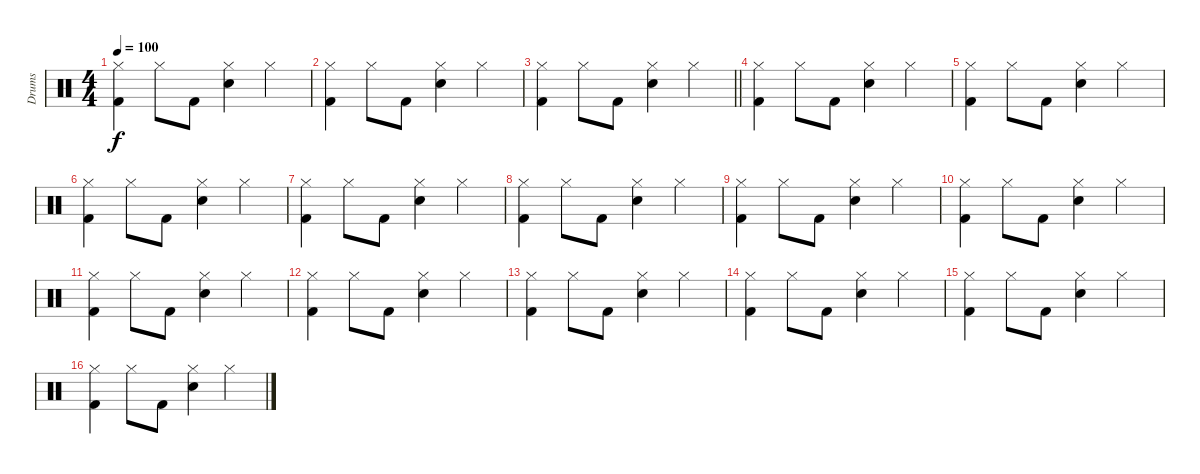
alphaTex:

\track ("Drums" "Drums") {instrument percussion}
\staff {score}
\articulation defaults
\ts (4 4)
\tempo 100
\clef neutral
\ks c
("Hi-Hat (closed)" "Kick (hit) 2").4{dy f} "Hi-Hat (closed)".8 "Kick (hit) 2".8 ("Hi-Hat (closed)" "Electric Snare (hit)").4 "Hi-Hat (closed)".4 |
("Hi-Hat (closed)" "Kick (hit) 2").4 "Hi-Hat (closed)".8 "Kick (hit) 2".8 ("Hi-Hat (closed)" "Electric Snare (hit)").4 "Hi-Hat (closed)".4 |
\barLineRight lightlight
("Hi-Hat (closed)" "Kick (hit) 2").4 "Hi-Hat (closed)".8 "Kick (hit) 2".8 ("Hi-Hat (closed)" "Electric Snare (hit)").4 "Hi-Hat (closed)".4 |
("Hi-Hat (closed)" "Kick (hit) 2").4 "Hi-Hat (closed)".8 "Kick (hit) 2".8 ("Hi-Hat (closed)" "Electric Snare (hit)").4 "Hi-Hat (closed)".4 |
("Hi-Hat (closed)" "Kick (hit) 2").4 "Hi-Hat (closed)".8 "Kick (hit) 2".8 ("Hi-Hat (closed)" "Electric Snare (hit)").4 "Hi-Hat (closed)".4 |
("Hi-Hat (closed)" "Kick (hit) 2").4 "Hi-Hat (closed)".8 "Kick (hit) 2".8 ("Hi-Hat (closed)" "Electric Snare (hit)").4 "Hi-Hat (closed)".4 |
("Hi-Hat (closed)" "Kick (hit) 2").4 "Hi-Hat (closed)".8 "Kick (hit) 2".8 ("Hi-Hat (closed)" "Electric Snare (hit)").4 "Hi-Hat (closed)".4 |
("Hi-Hat (closed)" "Kick (hit) 2").4 "Hi-Hat (closed)".8 "Kick (hit) 2".8 ("Hi-Hat (closed)" "Electric Snare (hit)").4 "Hi-Hat (closed)".4 |
("Hi-Hat (closed)" "Kick (hit) 2").4 "Hi-Hat (closed)".8 "Kick (hit) 2".8 ("Hi-Hat (closed)" "Electric Snare (hit)").4 "Hi-Hat (closed)".4 |
("Hi-Hat (closed)" "Kick (hit) 2").4 "Hi-Hat (closed)".8 "Kick (hit) 2".8 ("Hi-Hat (closed)" "Electric Snare (hit)").4 "Hi-Hat (closed)".4 |
("Hi-Hat (closed)" "Kick (hit) 2").4 "Hi-Hat (closed)".8 "Kick (hit) 2".8 ("Hi-Hat (closed)" "Electric Snare (hit)").4 "Hi-Hat (closed)".4 |
("Hi-Hat (closed)" "Kick (hit) 2").4 "Hi-Hat (closed)".8 "Kick (hit) 2".8 ("Hi-Hat (closed)" "Electric Snare (hit)").4 "Hi-Hat (closed)".4 |
("Hi-Hat (closed)" "Kick (hit) 2").4 "Hi-Hat (closed)".8 "Kick (hit) 2".8 ("Hi-Hat (closed)" "Electric Snare (hit)").4 "Hi-Hat (closed)".4 |
("Hi-Hat (closed)" "Kick (hit) 2").4 "Hi-Hat (closed)".8 "Kick (hit) 2".8 ("Hi-Hat (closed)" "Electric Snare (hit)").4 "Hi-Hat (closed)".4 |
("Hi-Hat (closed)" "Kick (hit) 2").4 "Hi-Hat (closed)".8 "Kick (hit) 2".8 ("Hi-Hat (closed)" "Electric Snare (hit)").4 "Hi-Hat (closed)".4 |
("Hi-Hat (closed)" "Kick (hit) 2").4 "Hi-Hat (closed)".8 "Kick (hit) 2".8 ("Hi-Hat (closed)" "Electric Snare (hit)").4 "Hi-Hat (closed)".4
